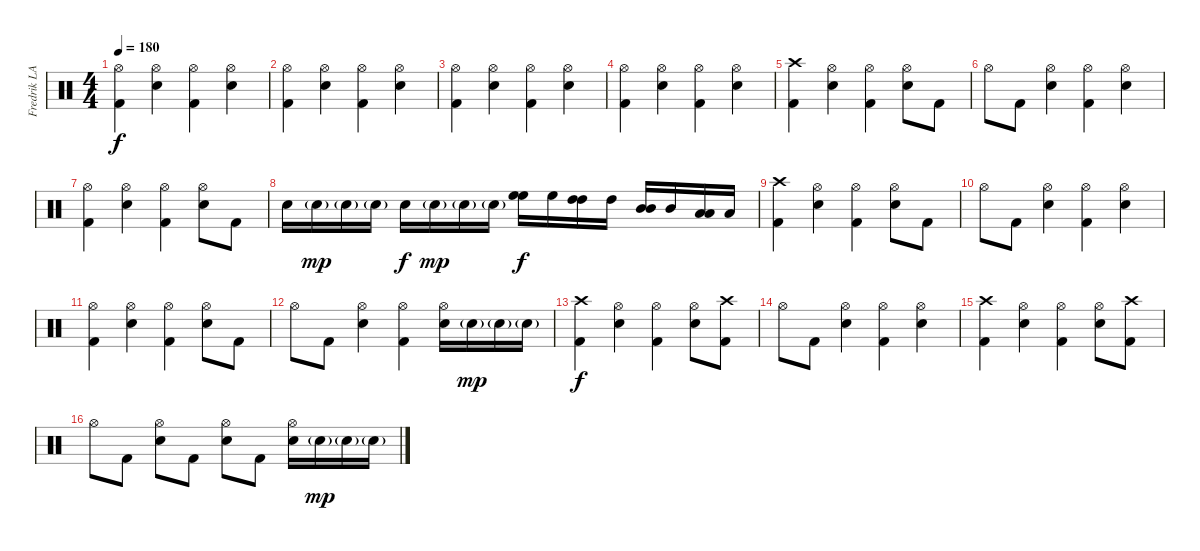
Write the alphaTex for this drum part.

\track ("Fredrik LARZON" "Fredrik LA") {instrument percussion}
\staff {score}
\articulation defaults
\ts (4 4)
\tempo 180
\clef neutral
\ks c
("Hi-Hat (open)" "Kick (hit) 2").4{dy f} ("Hi-Hat (open)" "Electric Snare (hit)").4 ("Hi-Hat (open)" "Kick (hit) 2").4 ("Hi-Hat (open)" "Electric Snare (hit)").4 |
("Hi-Hat (open)" "Kick (hit) 2").4 ("Hi-Hat (open)" "Electric Snare (hit)").4 ("Hi-Hat (open)" "Kick (hit) 2").4 ("Hi-Hat (open)" "Electric Snare (hit)").4 |
("Hi-Hat (open)" "Kick (hit) 2").4 ("Hi-Hat (open)" "Electric Snare (hit)").4 ("Hi-Hat (open)" "Kick (hit) 2").4 ("Hi-Hat (open)" "Electric Snare (hit)").4 |
("Hi-Hat (open)" "Kick (hit) 2").4 ("Hi-Hat (open)" "Electric Snare (hit)").4 ("Hi-Hat (open)" "Kick (hit) 2").4 ("Hi-Hat (open)" "Electric Snare (hit)").4 |
("Crash high (hit)" "Kick (hit) 2").4 ("Hi-Hat (open)" "Electric Snare (hit)").4 ("Hi-Hat (open)" "Kick (hit) 2").4 ("Hi-Hat (open)" "Electric Snare (hit)").8 "Kick (hit) 2".8 |
"Hi-Hat (open)".8 "Kick (hit) 2".8 ("Hi-Hat (open)" "Electric Snare (hit)").4 ("Hi-Hat (open)" "Kick (hit) 2").4 ("Hi-Hat (open)" "Electric Snare (hit)").4 |
("Hi-Hat (open)" "Kick (hit) 2").4 ("Hi-Hat (open)" "Electric Snare (hit)").4 ("Hi-Hat (open)" "Kick (hit) 2").4 ("Hi-Hat (open)" "Electric Snare (hit)").8 "Kick (hit) 2".8 |
"Electric Snare (hit)".16 "Electric Snare (hit)"{g}.16{dy mp} "Electric Snare (hit)"{g}.16 "Electric Snare (hit)"{g}.16 "Electric Snare (hit)".16{dy f} "Electric Snare (hit)"{g}.16{dy mp} "Electric Snare (hit)"{g}.16 "Electric Snare (hit)"{g}.16 ("High Floor Tom (hit)" "High Floor Tom (hit)").16{dy f} "High Floor Tom (hit)".16 ("High Tom (hit)" "High Tom (hit)").16 "High Tom (hit)".16 ("Mid Tom (hit)" "Mid Tom (hit)").16 "Mid Tom (hit)".16 ("Low Tom (hit)" "Low Tom (hit)").16 "Low Tom (hit)".16 |
("Crash high (hit)" "Kick (hit) 2").4 ("Hi-Hat (open)" "Electric Snare (hit)").4 ("Hi-Hat (open)" "Kick (hit) 2").4 ("Hi-Hat (open)" "Electric Snare (hit)").8 "Kick (hit) 2".8 |
"Hi-Hat (open)".8 "Kick (hit) 2".8 ("Hi-Hat (open)" "Electric Snare (hit)").4 ("Hi-Hat (open)" "Kick (hit) 2").4 ("Hi-Hat (open)" "Electric Snare (hit)").4 |
("Hi-Hat (open)" "Kick (hit) 2").4 ("Hi-Hat (open)" "Electric Snare (hit)").4 ("Hi-Hat (open)" "Kick (hit) 2").4 ("Hi-Hat (open)" "Electric Snare (hit)").8 "Kick (hit) 2".8 |
"Hi-Hat (open)".8 "Kick (hit) 2".8 ("Hi-Hat (open)" "Electric Snare (hit)").4 ("Hi-Hat (open)" "Kick (hit) 2").4 ("Hi-Hat (open)" "Electric Snare (hit)").16 "Electric Snare (hit)"{g}.16{dy mp} "Electric Snare (hit)"{g}.16 "Electric Snare (hit)"{g}.16 |
("Crash high (hit)" "Kick (hit) 2").4{dy f} ("Hi-Hat (open)" "Electric Snare (hit)").4 ("Hi-Hat (open)" "Kick (hit) 2").4 ("Hi-Hat (open)" "Electric Snare (hit)").8 ("Crash high (hit)" "Kick (hit) 2").8 |
"Hi-Hat (open)".8 "Kick (hit) 2".8 ("Hi-Hat (open)" "Electric Snare (hit)").4 ("Hi-Hat (open)" "Kick (hit) 2").4 ("Hi-Hat (open)" "Electric Snare (hit)").4 |
("Crash high (hit)" "Kick (hit) 2").4 ("Hi-Hat (open)" "Electric Snare (hit)").4 ("Hi-Hat (open)" "Kick (hit) 2").4 ("Hi-Hat (open)" "Electric Snare (hit)").8 ("Crash high (hit)" "Kick (hit) 2").8 |
"Hi-Hat (open)".8 "Kick (hit) 2".8 ("Hi-Hat (open)" "Electric Snare (hit)").8 "Kick (hit) 2".8 ("Hi-Hat (open)" "Electric Snare (hit)").8 "Kick (hit) 2".8 ("Hi-Hat (open)" "Electric Snare (hit)").16 "Electric Snare (hit)"{g}.16{dy mp} "Electric Snare (hit)"{g}.16 "Electric Snare (hit)"{g}.16
